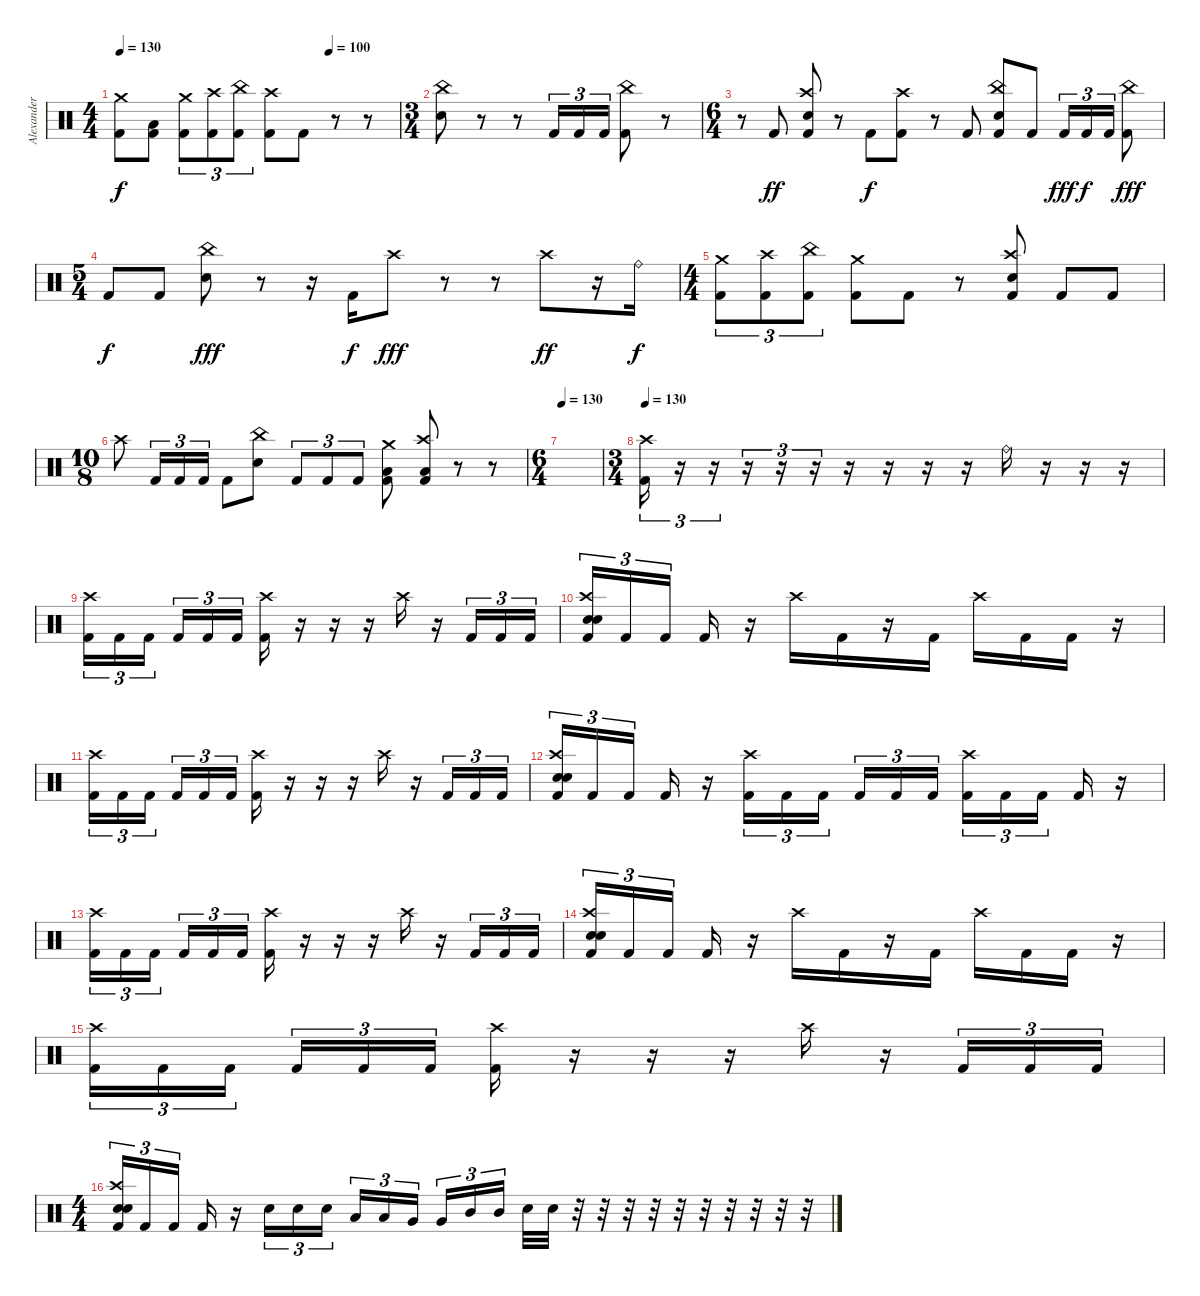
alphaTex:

\track ("Alexander Yazykov" "Alexander ") {instrument percussion}
\staff {score}
\articulation defaults
\ts (4 4)
\tempo 130
\tempo (100 0.75)
\clef neutral
\ks c
("Crash medium (hit)" "Kick (hit) 2").8{dy f} ("Low Tom (hit)" "Kick (hit) 2").8 ("Crash medium (hit)" "Kick (hit) 2").8{tu (3 2)} ("Crash high (hit)" "Kick (hit) 2").8{tu (3 2)} ("China (hit)" "Kick (hit) 2").8{tu (3 2)} ("Crash high (hit)" "Kick (hit) 2").8 "Kick (hit) 2".8 r.8 r.8 |
\ts (3 4)
("China (hit)" "Electric Snare (hit)").8 r.8 r.8 "Kick (hit) 2".16{tu (3 2)} "Kick (hit) 2".16{tu (3 2)} "Kick (hit) 2".16{tu (3 2)} ("China (hit)" "Kick (hit) 2").8 r.8 |
\ts (6 4)
r.8 "Kick (hit) 2".8{dy ff} ("Crash high (hit)" "Electric Snare (hit)" "Kick (hit) 2").8 r.8 "Kick (hit) 2".8{dy f} ("Crash high (hit)" "Kick (hit) 2").8 r.8 "Kick (hit) 2".8 ("China (hit)" "Electric Snare (hit)" "Kick (hit) 2").8 "Kick (hit) 2".8 "Kick (hit) 2".16{tu (3 2) dy fff} "Kick (hit) 2".16{tu (3 2) dy f} "Kick (hit) 2".16{tu (3 2)} ("China (hit)" "Kick (hit) 2").8{dy fff} |
\ts (5 4)
"Kick (hit) 2".8{dy f} "Kick (hit) 2".8 ("China (hit)" "Electric Snare (hit)").8{dy fff} r.8 r.16 "Kick (hit) 2".16{dy f} "Crash high (hit)".8{dy fff} r.8 r.8 "Crash high (hit)".8{dy ff} r.16 "Ride (bell)".16{dy f} |
\ts (4 4)
("Crash medium (hit)" "Kick (hit) 2").8{tu (3 2)} ("Crash high (hit)" "Kick (hit) 2").8{tu (3 2)} ("China (hit)" "Kick (hit) 2").8{tu (3 2)} ("Crash medium (hit)" "Kick (hit) 2").8 "Kick (hit) 2".8 r.8 ("Crash high (hit)" "Electric Snare (hit)" "Kick (hit) 2").8 "Kick (hit) 2".8 "Kick (hit) 2".8 |
\ts (10 8)
"Crash high (hit)".8 "Kick (hit) 2".16{tu (3 2)} "Kick (hit) 2".16{tu (3 2)} "Kick (hit) 2".16{tu (3 2)} "Kick (hit) 2".8 ("China (hit)" "Electric Snare (hit)").8 "Kick (hit) 2".8{tu (3 2)} "Kick (hit) 2".8{tu (3 2)} "Kick (hit) 2".8{tu (3 2)} ("Crash medium (hit)" "Low Floor Tom (hit)" "Kick (hit) 2").8 ("Crash high (hit)" "Low Floor Tom (hit)" "Kick (hit) 2").8 r.8 r.8 |
\ts (6 4)
\tempo 130
|
\ts (3 4)
\tempo 130
("Crash high (hit)" "Kick (hit) 2").16{tu (3 2)} r.16{tu (3 2)} r.16{tu (3 2)} r.16{tu (3 2)} r.16{tu (3 2)} r.16{tu (3 2)} r.16 r.16 r.16 r.16 "Ride (bell)".16 r.16 r.16 r.16 |
("Crash high (hit)" "Kick (hit) 2").16{tu (3 2)} "Kick (hit) 2".16{tu (3 2)} "Kick (hit) 2".16{tu (3 2) beam splitsecondary} "Kick (hit) 2".16{tu (3 2)} "Kick (hit) 2".16{tu (3 2)} "Kick (hit) 2".16{tu (3 2)} ("Crash high (hit)" "Kick (hit) 2").16 r.16 r.16 r.16 "Crash high (hit)".16 r.16 "Kick (hit) 2".16{tu (3 2)} "Kick (hit) 2".16{tu (3 2)} "Kick (hit) 2".16{tu (3 2)} |
("Crash high (hit)" "Snare (hit)" "Electric Snare (hit)" "Kick (hit) 2").16{tu (3 2)} "Kick (hit) 2".16{tu (3 2)} "Kick (hit) 2".16{tu (3 2) beam splitsecondary} "Kick (hit) 2".16 r.16 "Crash high (hit)".16 "Kick (hit) 2".16 r.16 "Kick (hit) 2".16 "Crash high (hit)".16 "Kick (hit) 2".16 "Kick (hit) 2".16 r.16 |
("Crash high (hit)" "Kick (hit) 2").16{tu (3 2)} "Kick (hit) 2".16{tu (3 2)} "Kick (hit) 2".16{tu (3 2) beam splitsecondary} "Kick (hit) 2".16{tu (3 2)} "Kick (hit) 2".16{tu (3 2)} "Kick (hit) 2".16{tu (3 2)} ("Crash high (hit)" "Kick (hit) 2").16 r.16 r.16 r.16 "Crash high (hit)".16 r.16 "Kick (hit) 2".16{tu (3 2)} "Kick (hit) 2".16{tu (3 2)} "Kick (hit) 2".16{tu (3 2)} |
("Crash high (hit)" "Snare (hit)" "Electric Snare (hit)" "Kick (hit) 2").16{tu (3 2)} "Kick (hit) 2".16{tu (3 2)} "Kick (hit) 2".16{tu (3 2) beam splitsecondary} "Kick (hit) 2".16 r.16 ("Crash high (hit)" "Kick (hit) 2").16{tu (3 2)} "Kick (hit) 2".16{tu (3 2)} "Kick (hit) 2".16{tu (3 2) beam splitsecondary} "Kick (hit) 2".16{tu (3 2)} "Kick (hit) 2".16{tu (3 2)} "Kick (hit) 2".16{tu (3 2)} ("Crash high (hit)" "Kick (hit) 2").16{tu (3 2)} "Kick (hit) 2".16{tu (3 2)} "Kick (hit) 2".16{tu (3 2) beam splitsecondary} "Kick (hit) 2".16 r.16 |
("Crash high (hit)" "Kick (hit) 2").16{tu (3 2)} "Kick (hit) 2".16{tu (3 2)} "Kick (hit) 2".16{tu (3 2) beam splitsecondary} "Kick (hit) 2".16{tu (3 2)} "Kick (hit) 2".16{tu (3 2)} "Kick (hit) 2".16{tu (3 2)} ("Crash high (hit)" "Kick (hit) 2").16 r.16 r.16 r.16 "Crash high (hit)".16 r.16 "Kick (hit) 2".16{tu (3 2)} "Kick (hit) 2".16{tu (3 2)} "Kick (hit) 2".16{tu (3 2)} |
("Crash high (hit)" "Snare (hit)" "Electric Snare (hit)" "Kick (hit) 2").16{tu (3 2)} "Kick (hit) 2".16{tu (3 2)} "Kick (hit) 2".16{tu (3 2) beam splitsecondary} "Kick (hit) 2".16 r.16 "Crash high (hit)".16 "Kick (hit) 2".16 r.16 "Kick (hit) 2".16 "Crash high (hit)".16 "Kick (hit) 2".16 "Kick (hit) 2".16 r.16 |
("Crash high (hit)" "Kick (hit) 2").16{tu (3 2)} "Kick (hit) 2".16{tu (3 2)} "Kick (hit) 2".16{tu (3 2) beam splitsecondary} "Kick (hit) 2".16{tu (3 2)} "Kick (hit) 2".16{tu (3 2)} "Kick (hit) 2".16{tu (3 2)} ("Crash high (hit)" "Kick (hit) 2").16 r.16 r.16 r.16 "Crash high (hit)".16 r.16 "Kick (hit) 2".16{tu (3 2)} "Kick (hit) 2".16{tu (3 2)} "Kick (hit) 2".16{tu (3 2)} |
\ts (4 4)
("Crash high (hit)" "Snare (hit)" "Electric Snare (hit)" "Kick (hit) 2").16{tu (3 2)} "Kick (hit) 2".16{tu (3 2)} "Kick (hit) 2".16{tu (3 2) beam splitsecondary} "Kick (hit) 2".16 r.16 "Electric Snare (hit)".16{tu (3 2)} "Electric Snare (hit)".16{tu (3 2)} "Electric Snare (hit)".16{tu (3 2) beam splitsecondary} "Low Tom (hit)".16{tu (3 2)} "Low Tom (hit)".16{tu (3 2)} "Very Low Tom (hit)".16{tu (3 2)} "Very Low Tom (hit)".16{tu (3 2)} "Mid Tom (hit)".16{tu (3 2)} "Mid Tom (hit)".16{tu (3 2) beam splitsecondary} "Electric Snare (hit)".32 "Electric Snare (hit)".32 r.32 r.32 r.32 r.32 r.32 r.32 r.32 r.32 r.32 r.32
